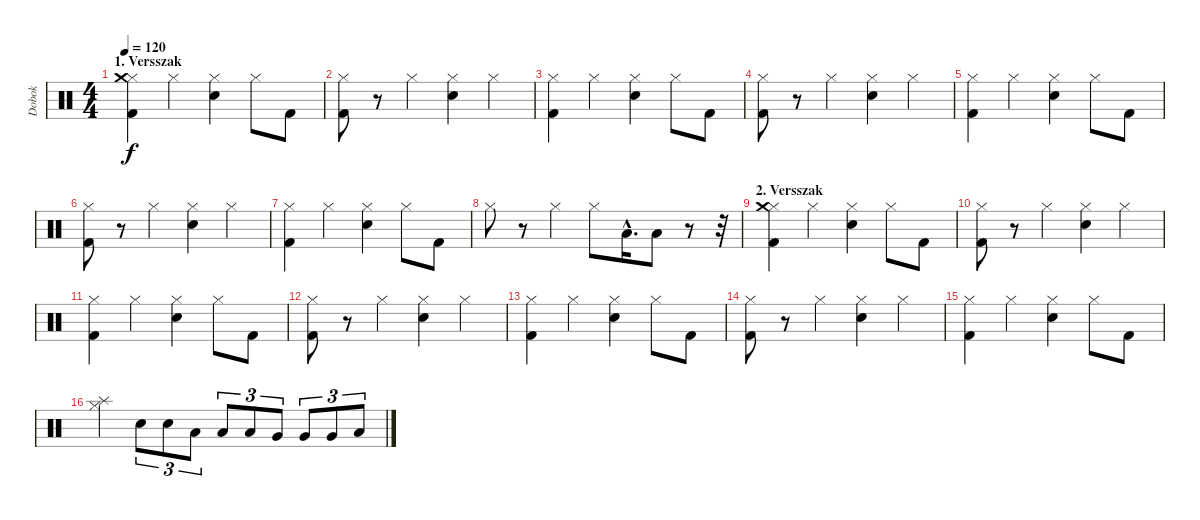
\track ("Dobok" "Dobok") {instrument percussion}
\staff {score}
\articulation defaults
\ts (4 4)
\section ("" "1. Versszak")
\tempo 120
\clef neutral
\ks c
("Hi-Hat (closed)" "Kick (hit) 2" "Crash medium (hit)").4{dy f} "Hi-Hat (closed)".4 ("Hi-Hat (closed)" "Snare (hit) 2").4 "Hi-Hat (closed)".8 "Kick (hit) 2".8 |
("Hi-Hat (closed)" "Kick (hit) 2").8 r.8 "Hi-Hat (closed)".4 ("Hi-Hat (closed)" "Snare (hit) 2").4 "Hi-Hat (closed)".4 |
("Hi-Hat (closed)" "Kick (hit) 2").4 "Hi-Hat (closed)".4 ("Hi-Hat (closed)" "Snare (hit) 2").4 "Hi-Hat (closed)".8 "Kick (hit) 2".8 |
("Hi-Hat (closed)" "Kick (hit) 2").8 r.8 "Hi-Hat (closed)".4 ("Hi-Hat (closed)" "Snare (hit) 2").4 "Hi-Hat (closed)".4 |
("Hi-Hat (closed)" "Kick (hit) 2").4 "Hi-Hat (closed)".4 ("Hi-Hat (closed)" "Snare (hit) 2").4 "Hi-Hat (closed)".8 "Kick (hit) 2".8 |
("Hi-Hat (closed)" "Kick (hit) 2").8 r.8 "Hi-Hat (closed)".4 ("Hi-Hat (closed)" "Snare (hit) 2").4 "Hi-Hat (closed)".4 |
("Hi-Hat (closed)" "Kick (hit) 2").4 "Hi-Hat (closed)".4 ("Hi-Hat (closed)" "Snare (hit) 2").4 "Hi-Hat (closed)".8 "Kick (hit) 2".8 |
"Hi-Hat (closed)".8 r.8 "Hi-Hat (closed)".4 "Hi-Hat (closed)".8 "Low Floor Tom (hit)"{hac}.16{d} "Low Floor Tom (hit)".8 r.8 r.32 |
\section ("" "2. Versszak")
("Hi-Hat (closed)" "Kick (hit) 2" "Crash medium (hit)").4 "Hi-Hat (closed)".4 ("Hi-Hat (closed)" "Snare (hit) 2").4 "Hi-Hat (closed)".8 "Kick (hit) 2".8 |
("Hi-Hat (closed)" "Kick (hit) 2").8 r.8 "Hi-Hat (closed)".4 ("Hi-Hat (closed)" "Snare (hit) 2").4 "Hi-Hat (closed)".4 |
("Hi-Hat (closed)" "Kick (hit) 2").4 "Hi-Hat (closed)".4 ("Hi-Hat (closed)" "Snare (hit) 2").4 "Hi-Hat (closed)".8 "Kick (hit) 2".8 |
("Hi-Hat (closed)" "Kick (hit) 2").8 r.8 "Hi-Hat (closed)".4 ("Hi-Hat (closed)" "Snare (hit) 2").4 "Hi-Hat (closed)".4 |
("Hi-Hat (closed)" "Kick (hit) 2").4 "Hi-Hat (closed)".4 ("Hi-Hat (closed)" "Snare (hit) 2").4 "Hi-Hat (closed)".8 "Kick (hit) 2".8 |
("Hi-Hat (closed)" "Kick (hit) 2").8 r.8 "Hi-Hat (closed)".4 ("Hi-Hat (closed)" "Snare (hit) 2").4 "Hi-Hat (closed)".4 |
("Hi-Hat (closed)" "Kick (hit) 2").4 "Hi-Hat (closed)".4 ("Hi-Hat (closed)" "Snare (hit) 2").4 "Hi-Hat (closed)".8 "Kick (hit) 2".8 |
("Hi-Hat (closed)" "Splash (hit)").4 "Snare (hit) 2".8{tu (3 2)} "Snare (hit) 2".8{tu (3 2)} "Low Tom (hit)".8{tu (3 2)} "Low Tom (hit)".8{tu (3 2)} "Low Tom (hit)".8{tu (3 2)} "Very Low Tom (hit)".8{tu (3 2)} "Very Low Tom (hit)".8{tu (3 2)} "Very Low Tom (hit)".8{tu (3 2)} "Low Floor Tom (hit)".8{tu (3 2)}
